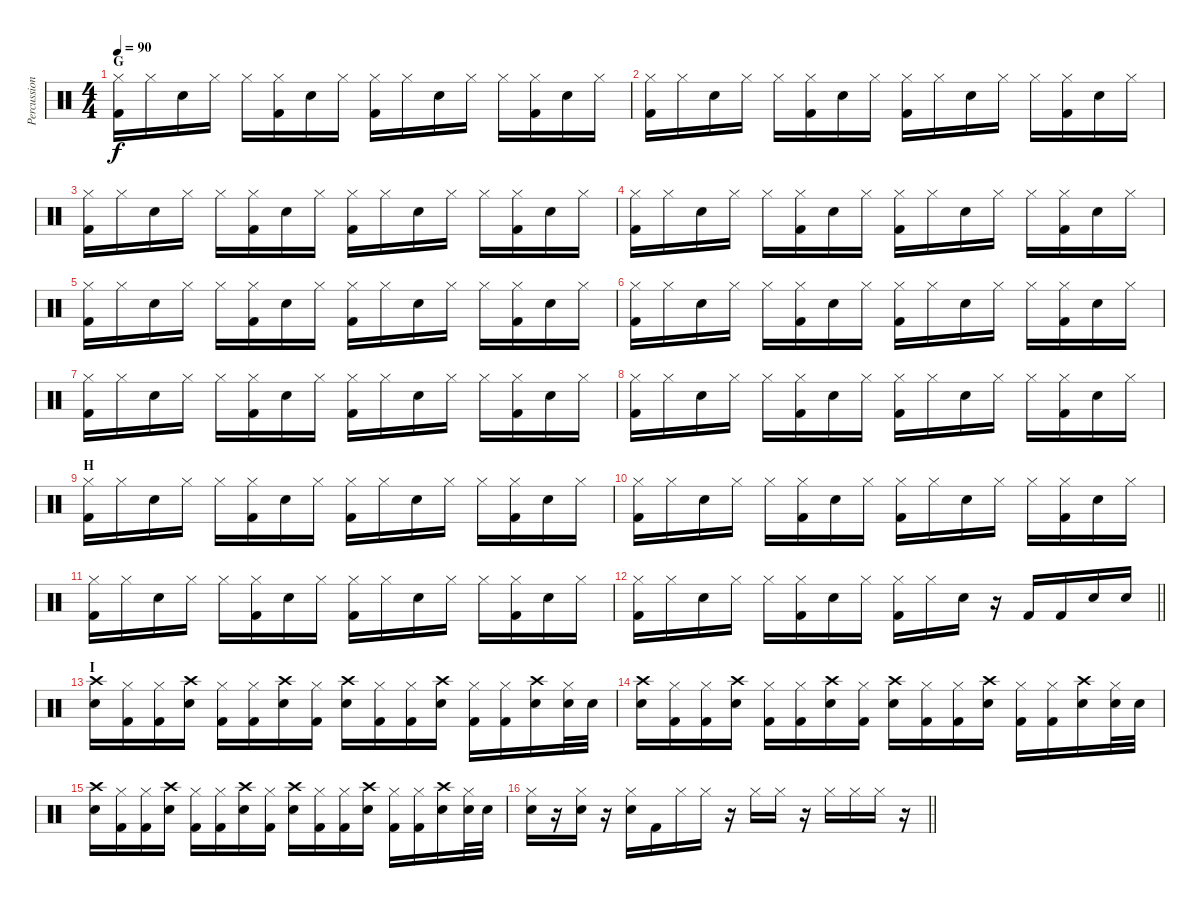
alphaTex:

\track ("Percussion" "Percussion") {instrument percussion}
\staff {score}
\articulation defaults
\ts (4 4)
\section ("" "G")
\tempo 90
\clef neutral
\ks c
("Hi-Hat (closed)" "Kick (hit) 2").16{dy f} "Hi-Hat (closed)".16 "Snare (hit) 2".16 "Hi-Hat (closed)".16 "Hi-Hat (closed)".16 ("Hi-Hat (closed)" "Kick (hit) 2").16 "Snare (hit) 2".16 "Hi-Hat (closed)".16 ("Hi-Hat (closed)" "Kick (hit) 2").16 "Hi-Hat (closed)".16 "Snare (hit) 2".16 "Hi-Hat (closed)".16 "Hi-Hat (closed)".16 ("Hi-Hat (closed)" "Kick (hit) 2").16 "Snare (hit) 2".16 "Hi-Hat (closed)".16 |
("Hi-Hat (closed)" "Kick (hit) 2").16 "Hi-Hat (closed)".16 "Snare (hit) 2".16 "Hi-Hat (closed)".16 "Hi-Hat (closed)".16 ("Hi-Hat (closed)" "Kick (hit) 2").16 "Snare (hit) 2".16 "Hi-Hat (closed)".16 ("Hi-Hat (closed)" "Kick (hit) 2").16 "Hi-Hat (closed)".16 "Snare (hit) 2".16 "Hi-Hat (closed)".16 "Hi-Hat (closed)".16 ("Hi-Hat (closed)" "Kick (hit) 2").16 "Snare (hit) 2".16 "Hi-Hat (closed)".16 |
("Hi-Hat (closed)" "Kick (hit) 2").16 "Hi-Hat (closed)".16 "Snare (hit) 2".16 "Hi-Hat (closed)".16 "Hi-Hat (closed)".16 ("Hi-Hat (closed)" "Kick (hit) 2").16 "Snare (hit) 2".16 "Hi-Hat (closed)".16 ("Hi-Hat (closed)" "Kick (hit) 2").16 "Hi-Hat (closed)".16 "Snare (hit) 2".16 "Hi-Hat (closed)".16 "Hi-Hat (closed)".16 ("Hi-Hat (closed)" "Kick (hit) 2").16 "Snare (hit) 2".16 "Hi-Hat (closed)".16 |
("Hi-Hat (closed)" "Kick (hit) 2").16 "Hi-Hat (closed)".16 "Snare (hit) 2".16 "Hi-Hat (closed)".16 "Hi-Hat (closed)".16 ("Hi-Hat (closed)" "Kick (hit) 2").16 "Snare (hit) 2".16 "Hi-Hat (closed)".16 ("Hi-Hat (closed)" "Kick (hit) 2").16 "Hi-Hat (closed)".16 "Snare (hit) 2".16 "Hi-Hat (closed)".16 "Hi-Hat (closed)".16 ("Hi-Hat (closed)" "Kick (hit) 2").16 "Snare (hit) 2".16 "Hi-Hat (closed)".16 |
("Hi-Hat (closed)" "Kick (hit) 2").16 "Hi-Hat (closed)".16 "Snare (hit) 2".16 "Hi-Hat (closed)".16 "Hi-Hat (closed)".16 ("Hi-Hat (closed)" "Kick (hit) 2").16 "Snare (hit) 2".16 "Hi-Hat (closed)".16 ("Hi-Hat (closed)" "Kick (hit) 2").16 "Hi-Hat (closed)".16 "Snare (hit) 2".16 "Hi-Hat (closed)".16 "Hi-Hat (closed)".16 ("Hi-Hat (closed)" "Kick (hit) 2").16 "Snare (hit) 2".16 "Hi-Hat (closed)".16 |
("Hi-Hat (closed)" "Kick (hit) 2").16 "Hi-Hat (closed)".16 "Snare (hit) 2".16 "Hi-Hat (closed)".16 "Hi-Hat (closed)".16 ("Hi-Hat (closed)" "Kick (hit) 2").16 "Snare (hit) 2".16 "Hi-Hat (closed)".16 ("Hi-Hat (closed)" "Kick (hit) 2").16 "Hi-Hat (closed)".16 "Snare (hit) 2".16 "Hi-Hat (closed)".16 "Hi-Hat (closed)".16 ("Hi-Hat (closed)" "Kick (hit) 2").16 "Snare (hit) 2".16 "Hi-Hat (closed)".16 |
("Hi-Hat (closed)" "Kick (hit) 2").16 "Hi-Hat (closed)".16 "Snare (hit) 2".16 "Hi-Hat (closed)".16 "Hi-Hat (closed)".16 ("Hi-Hat (closed)" "Kick (hit) 2").16 "Snare (hit) 2".16 "Hi-Hat (closed)".16 ("Hi-Hat (closed)" "Kick (hit) 2").16 "Hi-Hat (closed)".16 "Snare (hit) 2".16 "Hi-Hat (closed)".16 "Hi-Hat (closed)".16 ("Hi-Hat (closed)" "Kick (hit) 2").16 "Snare (hit) 2".16 "Hi-Hat (closed)".16 |
("Hi-Hat (closed)" "Kick (hit) 2").16 "Hi-Hat (closed)".16 "Snare (hit) 2".16 "Hi-Hat (closed)".16 "Hi-Hat (closed)".16 ("Hi-Hat (closed)" "Kick (hit) 2").16 "Snare (hit) 2".16 "Hi-Hat (closed)".16 ("Hi-Hat (closed)" "Kick (hit) 2").16 "Hi-Hat (closed)".16 "Snare (hit) 2".16 "Hi-Hat (closed)".16 "Hi-Hat (closed)".16 ("Hi-Hat (closed)" "Kick (hit) 2").16 "Snare (hit) 2".16 "Hi-Hat (closed)".16 |
\section ("" "H")
("Hi-Hat (closed)" "Kick (hit) 2").16 "Hi-Hat (closed)".16 "Snare (hit) 2".16 "Hi-Hat (closed)".16 "Hi-Hat (closed)".16 ("Hi-Hat (closed)" "Kick (hit) 2").16 "Snare (hit) 2".16 "Hi-Hat (closed)".16 ("Hi-Hat (closed)" "Kick (hit) 2").16 "Hi-Hat (closed)".16 "Snare (hit) 2".16 "Hi-Hat (closed)".16 "Hi-Hat (closed)".16 ("Hi-Hat (closed)" "Kick (hit) 2").16 "Snare (hit) 2".16 "Hi-Hat (closed)".16 |
("Hi-Hat (closed)" "Kick (hit) 2").16 "Hi-Hat (closed)".16 "Snare (hit) 2".16 "Hi-Hat (closed)".16 "Hi-Hat (closed)".16 ("Hi-Hat (closed)" "Kick (hit) 2").16 "Snare (hit) 2".16 "Hi-Hat (closed)".16 ("Hi-Hat (closed)" "Kick (hit) 2").16 "Hi-Hat (closed)".16 "Snare (hit) 2".16 "Hi-Hat (closed)".16 "Hi-Hat (closed)".16 ("Hi-Hat (closed)" "Kick (hit) 2").16 "Snare (hit) 2".16 "Hi-Hat (closed)".16 |
("Hi-Hat (closed)" "Kick (hit) 2").16 "Hi-Hat (closed)".16 "Snare (hit) 2".16 "Hi-Hat (closed)".16 "Hi-Hat (closed)".16 ("Hi-Hat (closed)" "Kick (hit) 2").16 "Snare (hit) 2".16 "Hi-Hat (closed)".16 ("Hi-Hat (closed)" "Kick (hit) 2").16 "Hi-Hat (closed)".16 "Snare (hit) 2".16 "Hi-Hat (closed)".16 "Hi-Hat (closed)".16 ("Hi-Hat (closed)" "Kick (hit) 2").16 "Snare (hit) 2".16 "Hi-Hat (closed)".16 |
\barLineRight lightlight
("Hi-Hat (closed)" "Kick (hit) 2").16 "Hi-Hat (closed)".16 "Snare (hit) 2".16 "Hi-Hat (closed)".16 "Hi-Hat (closed)".16 ("Hi-Hat (closed)" "Kick (hit) 2").16 "Snare (hit) 2".16 "Hi-Hat (closed)".16 ("Hi-Hat (closed)" "Kick (hit) 2").16 "Hi-Hat (closed)".16 "Snare (hit) 2".16 r.16 "Kick (hit) 2".16 "Kick (hit) 2".16 "Snare (hit) 2".16 "Snare (hit) 2".16 |
\section ("" "I")
("Crash high (hit)" "Snare (hit) 2").16 ("Hi-Hat (closed)" "Kick (hit) 2").16 ("Hi-Hat (closed)" "Kick (hit) 2").16 ("Crash high (hit)" "Snare (hit) 2").16 ("Hi-Hat (closed)" "Kick (hit) 2").16 ("Hi-Hat (closed)" "Kick (hit) 2").16 ("Crash high (hit)" "Snare (hit) 2").16 ("Hi-Hat (closed)" "Kick (hit) 2").16 ("Crash high (hit)" "Snare (hit) 2").16 ("Hi-Hat (closed)" "Kick (hit) 2").16 ("Hi-Hat (closed)" "Kick (hit) 2").16 ("Crash high (hit)" "Snare (hit) 2").16 ("Hi-Hat (closed)" "Kick (hit) 2").16 ("Hi-Hat (closed)" "Kick (hit) 2").16 ("Crash high (hit)" "Snare (hit) 2").16 ("Hi-Hat (closed)" "Snare (hit) 2").32 "Snare (hit) 2".32 |
("Crash high (hit)" "Snare (hit) 2").16 ("Hi-Hat (closed)" "Kick (hit) 2").16 ("Hi-Hat (closed)" "Kick (hit) 2").16 ("Crash high (hit)" "Snare (hit) 2").16 ("Hi-Hat (closed)" "Kick (hit) 2").16 ("Hi-Hat (closed)" "Kick (hit) 2").16 ("Crash high (hit)" "Snare (hit) 2").16 ("Hi-Hat (closed)" "Kick (hit) 2").16 ("Crash high (hit)" "Snare (hit) 2").16 ("Hi-Hat (closed)" "Kick (hit) 2").16 ("Hi-Hat (closed)" "Kick (hit) 2").16 ("Crash high (hit)" "Snare (hit) 2").16 ("Hi-Hat (closed)" "Kick (hit) 2").16 ("Hi-Hat (closed)" "Kick (hit) 2").16 ("Crash high (hit)" "Snare (hit) 2").16 ("Hi-Hat (closed)" "Snare (hit) 2").32 "Snare (hit) 2".32 |
("Crash high (hit)" "Snare (hit) 2").16 ("Hi-Hat (closed)" "Kick (hit) 2").16 ("Hi-Hat (closed)" "Kick (hit) 2").16 ("Crash high (hit)" "Snare (hit) 2").16 ("Hi-Hat (closed)" "Kick (hit) 2").16 ("Hi-Hat (closed)" "Kick (hit) 2").16 ("Crash high (hit)" "Snare (hit) 2").16 ("Hi-Hat (closed)" "Kick (hit) 2").16 ("Crash high (hit)" "Snare (hit) 2").16 ("Hi-Hat (closed)" "Kick (hit) 2").16 ("Hi-Hat (closed)" "Kick (hit) 2").16 ("Crash high (hit)" "Snare (hit) 2").16 ("Hi-Hat (closed)" "Kick (hit) 2").16 ("Hi-Hat (closed)" "Kick (hit) 2").16 ("Crash high (hit)" "Snare (hit) 2").16 ("Hi-Hat (closed)" "Snare (hit) 2").32 "Snare (hit) 2".32 |
\barLineRight lightlight
("Hi-Hat (closed)" "Snare (hit) 2").16 r.16 ("Hi-Hat (closed)" "Snare (hit) 2").16 r.16 ("Hi-Hat (closed)" "Snare (hit) 2").16 "Kick (hit) 2".16 "Hi-Hat (closed)".16 "Hi-Hat (closed)".16 r.16 "Hi-Hat (closed)".16 "Hi-Hat (closed)".16 r.16 "Hi-Hat (closed)".16 "Hi-Hat (closed)".16 "Hi-Hat (closed)".16 r.16
